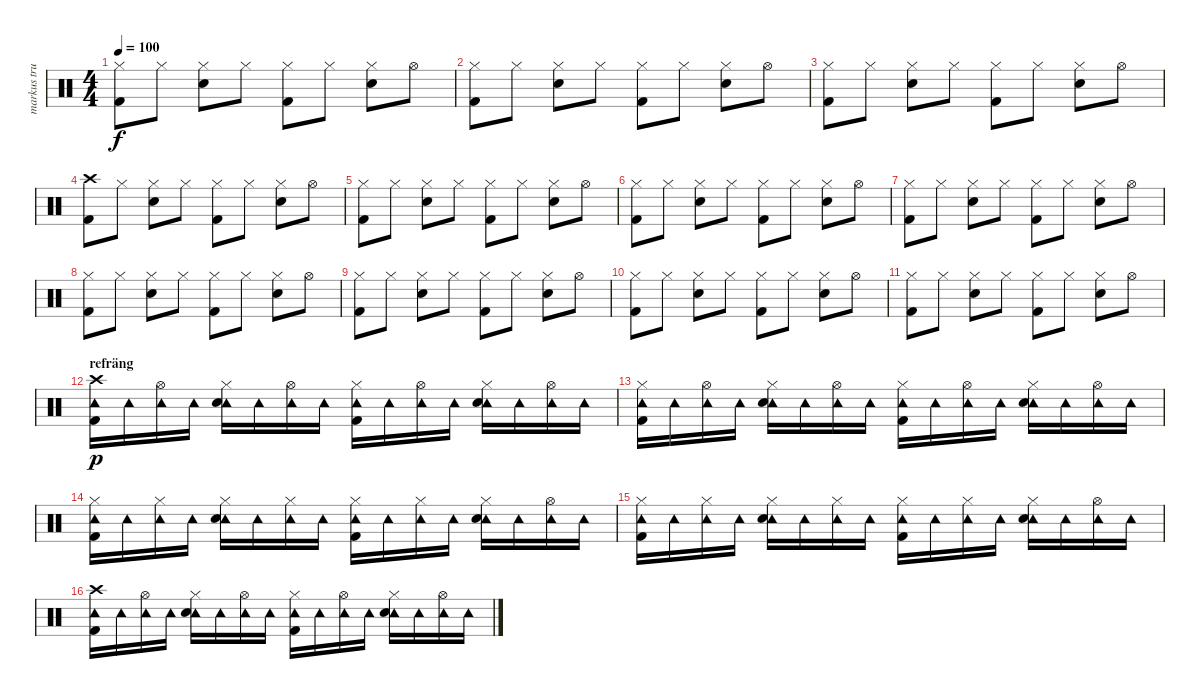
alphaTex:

\track ("markus trummor" "markus tru") {instrument percussion}
\staff {score}
\articulation defaults
\ts (4 4)
\tempo 100
\clef neutral
\ks c
("Hi-Hat (closed)" "Kick (hit) 2").8{dy f} "Hi-Hat (closed)".8 ("Hi-Hat (closed)" "Snare (hit) 2").8 "Hi-Hat (closed)".8 ("Hi-Hat (closed)" "Kick (hit) 2").8 "Hi-Hat (closed)".8 ("Hi-Hat (closed)" "Snare (hit) 2").8 "Hi-Hat (open)".8 |
("Hi-Hat (closed)" "Kick (hit) 2").8 "Hi-Hat (closed)".8 ("Hi-Hat (closed)" "Snare (hit) 2").8 "Hi-Hat (closed)".8 ("Hi-Hat (closed)" "Kick (hit) 2").8 "Hi-Hat (closed)".8 ("Hi-Hat (closed)" "Snare (hit) 2").8 "Hi-Hat (open)".8 |
("Hi-Hat (closed)" "Kick (hit) 2").8 "Hi-Hat (closed)".8 ("Hi-Hat (closed)" "Snare (hit) 2").8 "Hi-Hat (closed)".8 ("Hi-Hat (closed)" "Kick (hit) 2").8 "Hi-Hat (closed)".8 ("Hi-Hat (closed)" "Snare (hit) 2").8 "Hi-Hat (open)".8 |
("Crash high (hit)" "Kick (hit) 2").8 "Hi-Hat (closed)".8 ("Hi-Hat (closed)" "Snare (hit) 2").8 "Hi-Hat (closed)".8 ("Hi-Hat (closed)" "Kick (hit) 2").8 "Hi-Hat (closed)".8 ("Hi-Hat (closed)" "Snare (hit) 2").8 "Hi-Hat (open)".8 |
("Hi-Hat (closed)" "Kick (hit) 2").8 "Hi-Hat (closed)".8 ("Hi-Hat (closed)" "Snare (hit) 2").8 "Hi-Hat (closed)".8 ("Hi-Hat (closed)" "Kick (hit) 2").8 "Hi-Hat (closed)".8 ("Hi-Hat (closed)" "Snare (hit) 2").8 "Hi-Hat (open)".8 |
("Hi-Hat (closed)" "Kick (hit) 2").8 "Hi-Hat (closed)".8 ("Hi-Hat (closed)" "Snare (hit) 2").8 "Hi-Hat (closed)".8 ("Hi-Hat (closed)" "Kick (hit) 2").8 "Hi-Hat (closed)".8 ("Hi-Hat (closed)" "Snare (hit) 2").8 "Hi-Hat (open)".8 |
("Hi-Hat (closed)" "Kick (hit) 2").8 "Hi-Hat (closed)".8 ("Hi-Hat (closed)" "Snare (hit) 2").8 "Hi-Hat (closed)".8 ("Hi-Hat (closed)" "Kick (hit) 2").8 "Hi-Hat (closed)".8 ("Hi-Hat (closed)" "Snare (hit) 2").8 "Hi-Hat (open)".8 |
("Hi-Hat (closed)" "Kick (hit) 2").8 "Hi-Hat (closed)".8 ("Hi-Hat (closed)" "Snare (hit) 2").8 "Hi-Hat (closed)".8 ("Hi-Hat (closed)" "Kick (hit) 2").8 "Hi-Hat (closed)".8 ("Hi-Hat (closed)" "Snare (hit) 2").8 "Hi-Hat (open)".8 |
("Hi-Hat (closed)" "Kick (hit) 2").8 "Hi-Hat (closed)".8 ("Hi-Hat (closed)" "Snare (hit) 2").8 "Hi-Hat (closed)".8 ("Hi-Hat (closed)" "Kick (hit) 2").8 "Hi-Hat (closed)".8 ("Hi-Hat (closed)" "Snare (hit) 2").8 "Hi-Hat (open)".8 |
("Hi-Hat (closed)" "Kick (hit) 2").8 "Hi-Hat (closed)".8 ("Hi-Hat (closed)" "Snare (hit) 2").8 "Hi-Hat (closed)".8 ("Hi-Hat (closed)" "Kick (hit) 2").8 "Hi-Hat (closed)".8 ("Hi-Hat (closed)" "Snare (hit) 2").8 "Hi-Hat (open)".8 |
("Hi-Hat (closed)" "Kick (hit) 2").8 "Hi-Hat (closed)".8 ("Hi-Hat (closed)" "Snare (hit) 2").8 "Hi-Hat (closed)".8 ("Hi-Hat (closed)" "Kick (hit) 2").8 "Hi-Hat (closed)".8 ("Hi-Hat (closed)" "Snare (hit) 2").8 "Hi-Hat (open)".8 |
\section ("" "refräng")
("Tambourine (hit)" "Crash high (hit)" "Kick (hit) 2").16{dy p} "Tambourine (hit)".16 ("Tambourine (hit)" "Hi-Hat (open)").16 "Tambourine (hit)".16 ("Tambourine (hit)" "Hi-Hat (closed)" "Snare (hit) 2").16 "Tambourine (hit)".16 ("Tambourine (hit)" "Hi-Hat (open)").16 "Tambourine (hit)".16 ("Tambourine (hit)" "Hi-Hat (closed)" "Kick (hit) 2").16 "Tambourine (hit)".16 ("Tambourine (hit)" "Hi-Hat (open)").16 "Tambourine (hit)".16 ("Tambourine (hit)" "Hi-Hat (closed)" "Snare (hit) 2").16 "Tambourine (hit)".16 ("Tambourine (hit)" "Hi-Hat (open)").16 "Tambourine (hit)".16 |
("Tambourine (hit)" "Hi-Hat (closed)" "Kick (hit) 2").16 "Tambourine (hit)".16 ("Tambourine (hit)" "Hi-Hat (open)").16 "Tambourine (hit)".16 ("Tambourine (hit)" "Hi-Hat (closed)" "Snare (hit) 2").16 "Tambourine (hit)".16 ("Tambourine (hit)" "Hi-Hat (open)").16 "Tambourine (hit)".16 ("Tambourine (hit)" "Hi-Hat (closed)" "Kick (hit) 2").16 "Tambourine (hit)".16 ("Tambourine (hit)" "Hi-Hat (open)").16 "Tambourine (hit)".16 ("Tambourine (hit)" "Hi-Hat (closed)" "Snare (hit) 2").16 "Tambourine (hit)".16 ("Tambourine (hit)" "Hi-Hat (open)").16 "Tambourine (hit)".16 |
("Tambourine (hit)" "Hi-Hat (closed)" "Kick (hit) 2").16 "Tambourine (hit)".16 ("Tambourine (hit)" "Hi-Hat (closed)").16 "Tambourine (hit)".16 ("Tambourine (hit)" "Hi-Hat (closed)" "Snare (hit) 2").16 "Tambourine (hit)".16 ("Tambourine (hit)" "Hi-Hat (closed)").16 "Tambourine (hit)".16 ("Tambourine (hit)" "Hi-Hat (closed)" "Kick (hit) 2").16 "Tambourine (hit)".16 ("Tambourine (hit)" "Hi-Hat (closed)").16 "Tambourine (hit)".16 ("Tambourine (hit)" "Hi-Hat (closed)" "Snare (hit) 2").16 "Tambourine (hit)".16 ("Tambourine (hit)" "Hi-Hat (open)").16 "Tambourine (hit)".16 |
("Tambourine (hit)" "Hi-Hat (closed)" "Kick (hit) 2").16 "Tambourine (hit)".16 ("Tambourine (hit)" "Hi-Hat (closed)").16 "Tambourine (hit)".16 ("Tambourine (hit)" "Hi-Hat (closed)" "Snare (hit) 2").16 "Tambourine (hit)".16 ("Tambourine (hit)" "Hi-Hat (closed)").16 "Tambourine (hit)".16 ("Tambourine (hit)" "Hi-Hat (closed)" "Kick (hit) 2").16 "Tambourine (hit)".16 ("Tambourine (hit)" "Hi-Hat (closed)").16 "Tambourine (hit)".16 ("Tambourine (hit)" "Hi-Hat (closed)" "Snare (hit) 2").16 "Tambourine (hit)".16 ("Tambourine (hit)" "Hi-Hat (open)").16 "Tambourine (hit)".16 |
("Tambourine (hit)" "Crash high (hit)" "Kick (hit) 2").16 "Tambourine (hit)".16 ("Tambourine (hit)" "Hi-Hat (open)").16 "Tambourine (hit)".16 ("Tambourine (hit)" "Hi-Hat (closed)" "Snare (hit) 2").16 "Tambourine (hit)".16 ("Tambourine (hit)" "Hi-Hat (open)").16 "Tambourine (hit)".16 ("Tambourine (hit)" "Hi-Hat (closed)" "Kick (hit) 2").16 "Tambourine (hit)".16 ("Tambourine (hit)" "Hi-Hat (open)").16 "Tambourine (hit)".16 ("Tambourine (hit)" "Hi-Hat (closed)" "Snare (hit) 2").16 "Tambourine (hit)".16 ("Tambourine (hit)" "Hi-Hat (open)").16 "Tambourine (hit)".16
